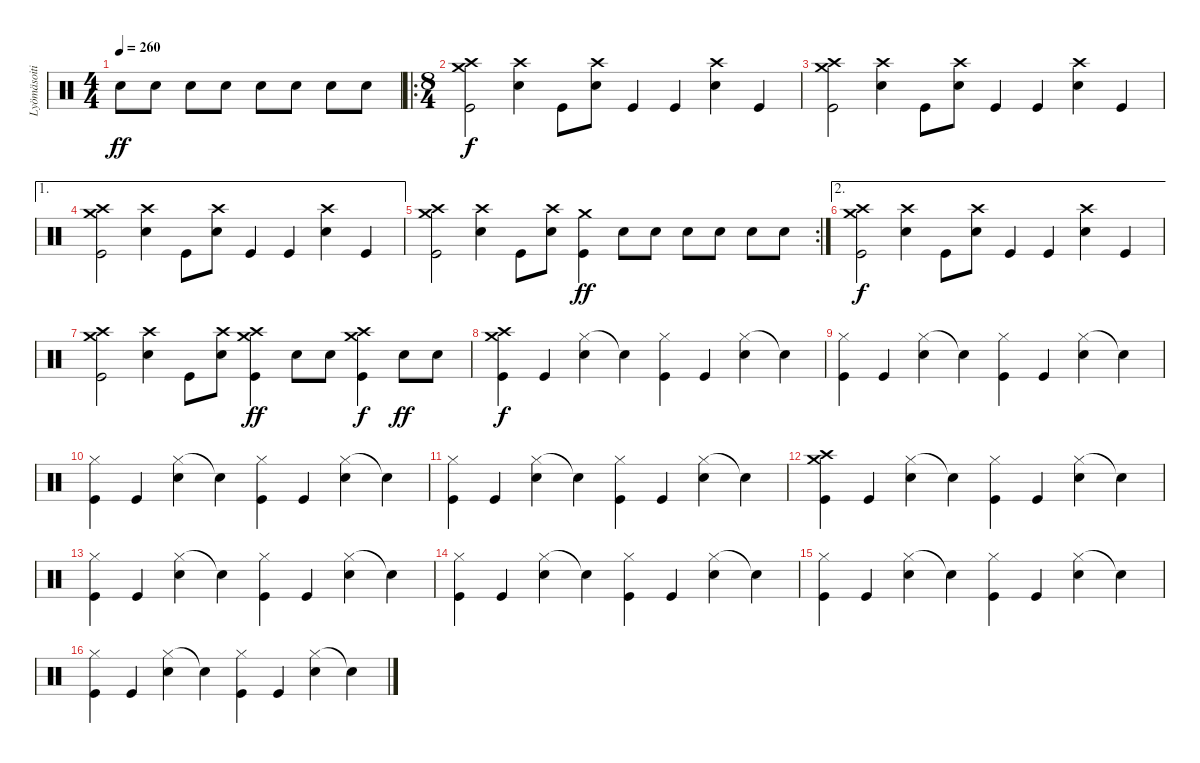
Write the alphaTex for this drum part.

\track ("Lyömäsoitin" "Lyömäsoiti") {instrument percussion}
\staff {score}
\articulation defaults
\ts (4 4)
\tempo 260
\clef neutral
\ks c "Snare (hit) 2".8{dy ff} "Snare (hit) 2".8 "Snare (hit) 2".8 "Snare (hit) 2".8 "Snare (hit) 2".8 "Snare (hit) 2".8 "Snare (hit) 2".8 "Snare (hit) 2".8
|
\ro
\ts (8 4)
("Crash medium (hit)" "Crash high (hit)" "Kick (hit)").2{dy f} ("Crash high (hit)" "Snare (hit) 2").4 "Kick (hit)".8 ("Crash high (hit)" "Snare (hit) 2").8 "Kick (hit)".4 "Kick (hit)".4 ("Crash high (hit)" "Snare (hit) 2").4 "Kick (hit)".4 |
("Crash medium (hit)" "Crash high (hit)" "Kick (hit)").2 ("Crash high (hit)" "Snare (hit) 2").4 "Kick (hit)".8 ("Crash high (hit)" "Snare (hit) 2").8 "Kick (hit)".4 "Kick (hit)".4 ("Crash high (hit)" "Snare (hit) 2").4 "Kick (hit)".4 |
\ae 1
("Crash medium (hit)" "Crash high (hit)" "Kick (hit)").2 ("Crash high (hit)" "Snare (hit) 2").4 "Kick (hit)".8 ("Crash high (hit)" "Snare (hit) 2").8 "Kick (hit)".4 "Kick (hit)".4 ("Crash high (hit)" "Snare (hit) 2").4 "Kick (hit)".4 |
\rc 2
("Crash medium (hit)" "Crash high (hit)" "Kick (hit)").2 ("Crash high (hit)" "Snare (hit) 2").4 "Kick (hit)".8 ("Crash high (hit)" "Snare (hit) 2").8 ("Crash medium (hit)" "Kick (hit)").4{dy ff} "Snare (hit) 2".8 "Snare (hit) 2".8 "Snare (hit) 2".8 "Snare (hit) 2".8 "Snare (hit) 2".8 "Snare (hit) 2".8 |
\ae 2
("Crash medium (hit)" "Crash high (hit)" "Kick (hit)").2{dy f} ("Crash high (hit)" "Snare (hit) 2").4 "Kick (hit)".8 ("Crash high (hit)" "Snare (hit) 2").8 "Kick (hit)".4 "Kick (hit)".4 ("Crash high (hit)" "Snare (hit) 2").4 "Kick (hit)".4 |
("Crash medium (hit)" "Crash high (hit)" "Kick (hit)").2 ("Crash high (hit)" "Snare (hit) 2").4 "Kick (hit)".8 ("Crash high (hit)" "Snare (hit) 2").8 ("Crash medium (hit)" "Crash high (hit)" "Kick (hit)").4{dy ff} "Snare (hit) 2".8 "Snare (hit) 2".8 ("Crash medium (hit)" "Crash high (hit)" "Kick (hit)").4{dy f} "Snare (hit) 2".8{dy ff} "Snare (hit) 2".8 |
("Crash medium (hit)" "Crash high (hit)" "Kick (hit)").4{dy f} "Kick (hit)".4 ("Hi-Hat (closed)" "Snare (hit) 2").4 "Snare (hit)"{t}.4 ("Hi-Hat (closed)" "Kick (hit)").4 "Kick (hit)".4 ("Hi-Hat (closed)" "Snare (hit) 2").4 "Snare (hit)"{t}.4 |
("Hi-Hat (closed)" "Kick (hit)").4 "Kick (hit)".4 ("Hi-Hat (closed)" "Snare (hit) 2").4 "Snare (hit)"{t}.4 ("Hi-Hat (closed)" "Kick (hit)").4 "Kick (hit)".4 ("Hi-Hat (closed)" "Snare (hit) 2").4 "Snare (hit)"{t}.4 |
("Hi-Hat (closed)" "Kick (hit)").4 "Kick (hit)".4 ("Hi-Hat (closed)" "Snare (hit) 2").4 "Snare (hit)"{t}.4 ("Hi-Hat (closed)" "Kick (hit)").4 "Kick (hit)".4 ("Hi-Hat (closed)" "Snare (hit) 2").4 "Snare (hit)"{t}.4 |
("Hi-Hat (closed)" "Kick (hit)").4 "Kick (hit)".4 ("Hi-Hat (closed)" "Snare (hit) 2").4 "Snare (hit)"{t}.4 ("Hi-Hat (closed)" "Kick (hit)").4 "Kick (hit)".4 ("Hi-Hat (closed)" "Snare (hit) 2").4 "Snare (hit)"{t}.4 |
("Crash medium (hit)" "Crash high (hit)" "Kick (hit)").4 "Kick (hit)".4 ("Hi-Hat (closed)" "Snare (hit) 2").4 "Snare (hit)"{t}.4 ("Hi-Hat (closed)" "Kick (hit)").4 "Kick (hit)".4 ("Hi-Hat (closed)" "Snare (hit) 2").4 "Snare (hit)"{t}.4 |
("Hi-Hat (closed)" "Kick (hit)").4 "Kick (hit)".4 ("Hi-Hat (closed)" "Snare (hit) 2").4 "Snare (hit)"{t}.4 ("Hi-Hat (closed)" "Kick (hit)").4 "Kick (hit)".4 ("Hi-Hat (closed)" "Snare (hit) 2").4 "Snare (hit)"{t}.4 |
("Hi-Hat (closed)" "Kick (hit)").4 "Kick (hit)".4 ("Hi-Hat (closed)" "Snare (hit) 2").4 "Snare (hit)"{t}.4 ("Hi-Hat (closed)" "Kick (hit)").4 "Kick (hit)".4 ("Hi-Hat (closed)" "Snare (hit) 2").4 "Snare (hit)"{t}.4 |
("Hi-Hat (closed)" "Kick (hit)").4 "Kick (hit)".4 ("Hi-Hat (closed)" "Snare (hit) 2").4 "Snare (hit)"{t}.4 ("Hi-Hat (closed)" "Kick (hit)").4 "Kick (hit)".4 ("Hi-Hat (closed)" "Snare (hit) 2").4 "Snare (hit)"{t}.4 |
("Hi-Hat (closed)" "Kick (hit)").4 "Kick (hit)".4 ("Hi-Hat (closed)" "Snare (hit) 2").4 "Snare (hit)"{t}.4 ("Hi-Hat (closed)" "Kick (hit)").4 "Kick (hit)".4 ("Hi-Hat (closed)" "Snare (hit) 2").4 "Snare (hit)"{t}.4
